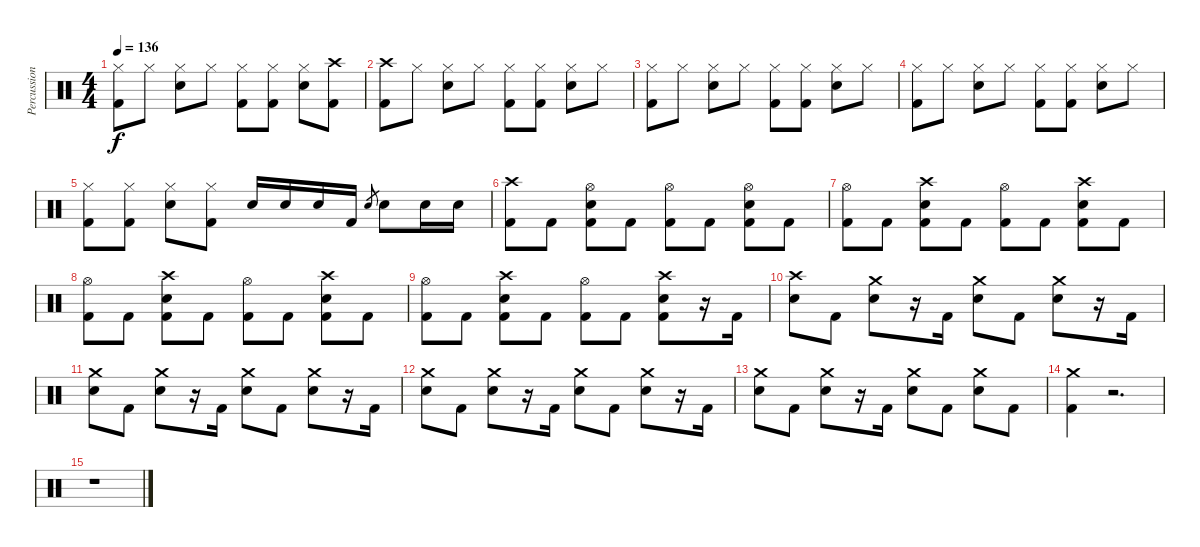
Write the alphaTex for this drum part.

\track ("Percussion" "Percussion") {instrument percussion}
\staff {score}
\articulation defaults
\ts (4 4)
\tempo 136
\clef neutral
\ks c
("Hi-Hat (closed)" "Kick (hit) 2").8{dy f} "Hi-Hat (closed)".8 ("Hi-Hat (closed)" "Electric Snare (hit)").8 "Hi-Hat (closed)".8 ("Hi-Hat (closed)" "Kick (hit) 2").8 ("Hi-Hat (closed)" "Kick (hit) 2").8 ("Hi-Hat (closed)" "Electric Snare (hit)").8 ("Crash high (hit)" "Kick (hit) 2").8 |
("Crash high (hit)" "Kick (hit) 2").8 "Hi-Hat (closed)".8 ("Hi-Hat (closed)" "Electric Snare (hit)").8 "Hi-Hat (closed)".8 ("Hi-Hat (closed)" "Kick (hit) 2").8 ("Hi-Hat (closed)" "Kick (hit) 2").8 ("Hi-Hat (closed)" "Electric Snare (hit)").8 "Hi-Hat (closed)".8 |
("Hi-Hat (closed)" "Kick (hit) 2").8 "Hi-Hat (closed)".8 ("Hi-Hat (closed)" "Electric Snare (hit)").8 "Hi-Hat (closed)".8 ("Hi-Hat (closed)" "Kick (hit) 2").8 ("Hi-Hat (closed)" "Kick (hit) 2").8 ("Hi-Hat (closed)" "Electric Snare (hit)").8 "Hi-Hat (closed)".8 |
("Hi-Hat (closed)" "Kick (hit) 2").8 "Hi-Hat (closed)".8 ("Hi-Hat (closed)" "Electric Snare (hit)").8 "Hi-Hat (closed)".8 ("Hi-Hat (closed)" "Kick (hit) 2").8 ("Hi-Hat (closed)" "Kick (hit) 2").8 ("Hi-Hat (closed)" "Electric Snare (hit)").8 "Hi-Hat (closed)".8 |
("Hi-Hat (closed)" "Kick (hit) 2").8 ("Hi-Hat (closed)" "Kick (hit) 2").8 ("Hi-Hat (closed)" "Electric Snare (hit)").8 ("Hi-Hat (closed)" "Kick (hit) 2").8 "Electric Snare (hit)".16 "Electric Snare (hit)".16 "Electric Snare (hit)".16 "Kick (hit) 2".16 "Electric Snare (hit)".8{gr} "Electric Snare (hit)".8 "Electric Snare (hit)".16 "Electric Snare (hit)".16 |
("Crash high (hit)" "Kick (hit) 2").8 "Kick (hit) 2".8 ("Hi-Hat (open)" "Electric Snare (hit)" "Kick (hit) 2").8 "Kick (hit) 2".8 ("Hi-Hat (open)" "Kick (hit) 2").8 "Kick (hit) 2".8 ("Hi-Hat (open)" "Electric Snare (hit)" "Kick (hit) 2").8 "Kick (hit) 2".8 |
("Hi-Hat (open)" "Kick (hit) 2").8 "Kick (hit) 2".8 ("Crash high (hit)" "Electric Snare (hit)" "Kick (hit) 2").8 "Kick (hit) 2".8 ("Hi-Hat (open)" "Kick (hit) 2").8 "Kick (hit) 2".8 ("Crash high (hit)" "Electric Snare (hit)" "Kick (hit) 2").8 "Kick (hit) 2".8 |
("Hi-Hat (open)" "Kick (hit) 2").8 "Kick (hit) 2".8 ("Crash high (hit)" "Electric Snare (hit)" "Kick (hit) 2").8 "Kick (hit) 2".8 ("Hi-Hat (open)" "Kick (hit) 2").8 "Kick (hit) 2".8 ("Crash high (hit)" "Electric Snare (hit)" "Kick (hit) 2").8 "Kick (hit) 2".8 |
("Hi-Hat (open)" "Kick (hit) 2").8 "Kick (hit) 2".8 ("Crash high (hit)" "Electric Snare (hit)" "Kick (hit) 2").8 "Kick (hit) 2".8 ("Hi-Hat (open)" "Kick (hit) 2").8 "Kick (hit) 2".8 ("Crash high (hit)" "Electric Snare (hit)" "Kick (hit) 2").8 r.16 "Kick (hit) 2".16 |
("Crash high (hit)" "Electric Snare (hit)").8 "Kick (hit) 2".8 ("Crash medium (hit)" "Electric Snare (hit)").8 r.16 "Kick (hit) 2".16 ("Crash medium (hit)" "Electric Snare (hit)").8 "Kick (hit) 2".8 ("Crash medium (hit)" "Electric Snare (hit)").8 r.16 "Kick (hit) 2".16 |
("Crash medium (hit)" "Electric Snare (hit)").8 "Kick (hit) 2".8 ("Crash medium (hit)" "Electric Snare (hit)").8 r.16 "Kick (hit) 2".16 ("Crash medium (hit)" "Electric Snare (hit)").8 "Kick (hit) 2".8 ("Crash medium (hit)" "Electric Snare (hit)").8 r.16 "Kick (hit) 2".16 |
("Crash medium (hit)" "Electric Snare (hit)").8 "Kick (hit) 2".8 ("Crash medium (hit)" "Electric Snare (hit)").8 r.16 "Kick (hit) 2".16 ("Crash medium (hit)" "Electric Snare (hit)").8 "Kick (hit) 2".8 ("Crash medium (hit)" "Electric Snare (hit)").8 r.16 "Kick (hit) 2".16 |
("Crash medium (hit)" "Electric Snare (hit)").8 "Kick (hit) 2".8 ("Crash medium (hit)" "Electric Snare (hit)").8 r.16 "Kick (hit) 2".16 ("Crash medium (hit)" "Electric Snare (hit)").8 "Kick (hit) 2".8 ("Crash medium (hit)" "Electric Snare (hit)").8 "Kick (hit) 2".8 |
("Crash medium (hit)" "Kick (hit) 2").4 r.2{d} |
r.1
